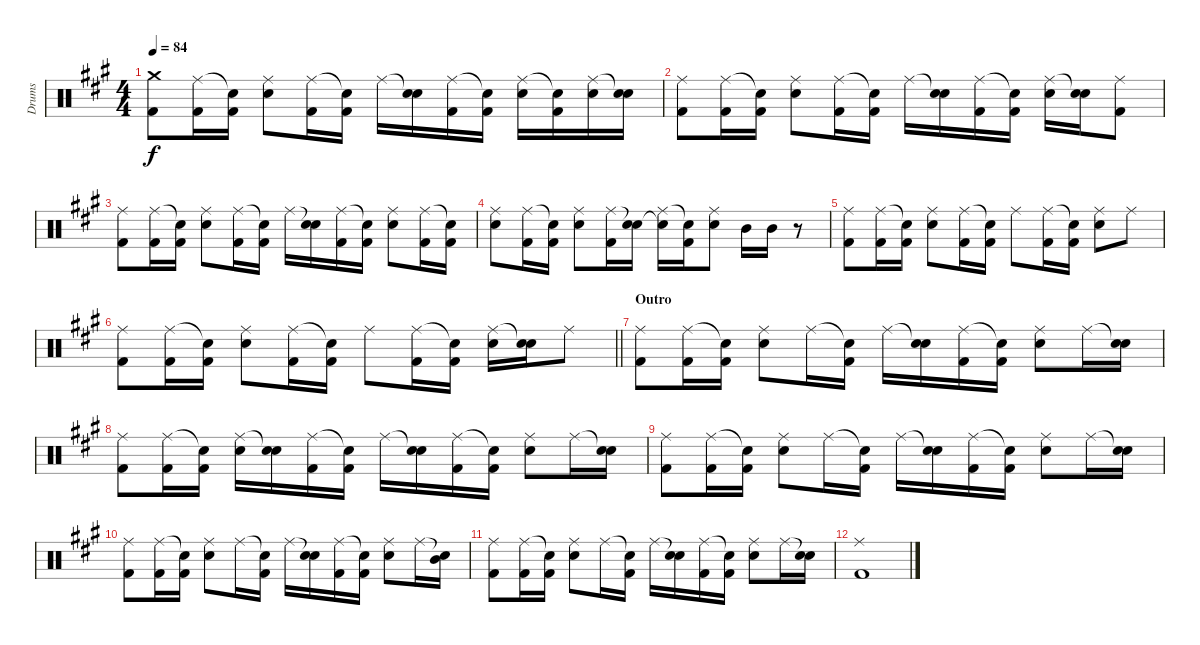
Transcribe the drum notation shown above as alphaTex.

\track ("Drums" "Drums") {instrument percussion}
\staff {score}
\articulation defaults
\ts (4 4)
\tempo 84
\clef neutral
\ks a
("Crash medium (hit)" "Kick (hit) 2").8{dy f} ("Ride (middle)" "Kick (hit) 2").16 ("Snare (hit)"{t} "Kick (hit) 2").16 ("Ride (middle)" "Electric Snare (hit)").8 ("Ride (middle)" "Kick (hit) 2").16 ("Snare (hit)"{t} "Kick (hit) 2").16 "Ride (middle)".16 ("Snare (hit)"{t} "Electric Snare (hit)").16 ("Ride (middle)" "Kick (hit) 2").16 ("Snare (hit)"{t} "Kick (hit) 2").16 ("Ride (middle)" "Electric Snare (hit)").16 ("Snare (hit)"{t} "Kick (hit) 2").16 ("Ride (middle)" "Electric Snare (hit)").16 ("Snare (hit)"{t} "Electric Snare (hit)").16 |
("Ride (middle)" "Kick (hit) 2").8 ("Ride (middle)" "Kick (hit) 2").16 ("Snare (hit)"{t} "Kick (hit) 2").16 ("Ride (middle)" "Electric Snare (hit)").8 ("Ride (middle)" "Kick (hit) 2").16 ("Snare (hit)"{t} "Kick (hit) 2").16 "Ride (middle)".16 ("Snare (hit)"{t} "Electric Snare (hit)").16 ("Ride (middle)" "Kick (hit) 2").16 ("Snare (hit)"{t} "Kick (hit) 2").16 ("Ride (middle)" "Electric Snare (hit)").16 ("Snare (hit)"{t} "Electric Snare (hit)").16 ("Ride (middle)" "Kick (hit) 2").8 |
("Ride (middle)" "Kick (hit) 2").8 ("Ride (middle)" "Kick (hit) 2").16 ("Snare (hit)"{t} "Kick (hit) 2").16 ("Ride (middle)" "Electric Snare (hit)").8 ("Ride (middle)" "Kick (hit) 2").16 ("Snare (hit)"{t} "Kick (hit) 2").16 "Ride (middle)".16 ("Snare (hit)"{t} "Electric Snare (hit)").16 ("Ride (middle)" "Kick (hit) 2").16 ("Snare (hit)"{t} "Kick (hit) 2").16 ("Ride (middle)" "Electric Snare (hit)").8 ("Ride (middle)" "Kick (hit) 2").16 ("Snare (hit)"{t} "Kick (hit) 2").16 |
("Ride (middle)" "Electric Snare (hit)").8 ("Ride (middle)" "Kick (hit) 2").16 ("Snare (hit)"{t} "Kick (hit) 2").16 ("Ride (middle)" "Electric Snare (hit)").8 ("Ride (middle)" "Kick (hit) 2").16 ("Snare (hit)"{t} "Electric Snare (hit)").16 ("Ride (middle)" "Snare (hit)"{t}).16 ("Snare (hit)"{t} "Kick (hit) 2").16 ("Ride (middle)" "Electric Snare (hit)").8 "Mid Tom (hit)".16 "Mid Tom (hit)".16 r.8 |
("Ride (middle)" "Kick (hit) 2").8 ("Ride (middle)" "Kick (hit) 2").16 ("Snare (hit)"{t} "Kick (hit) 2").16 ("Ride (middle)" "Electric Snare (hit)").8 ("Ride (middle)" "Kick (hit) 2").16 ("Snare (hit)"{t} "Kick (hit) 2").16 "Ride (middle)".8 ("Ride (middle)" "Kick (hit) 2").16 ("Snare (hit)"{t} "Kick (hit) 2").16 ("Ride (middle)" "Electric Snare (hit)").8 "Ride (middle)".8 |
\barLineRight lightlight
("Ride (middle)" "Kick (hit) 2").8 ("Ride (middle)" "Kick (hit) 2").16 ("Snare (hit)"{t} "Kick (hit) 2").16 ("Ride (middle)" "Electric Snare (hit)").8 ("Ride (middle)" "Kick (hit) 2").16 ("Snare (hit)"{t} "Kick (hit) 2").16 "Ride (middle)".8 ("Ride (middle)" "Kick (hit) 2").16 ("Snare (hit)"{t} "Kick (hit) 2").16 ("Ride (middle)" "Electric Snare (hit)").16 ("Snare (hit)"{t} "Electric Snare (hit)").16 "Ride (middle)".8 |
\section ("" "Outro")
("Ride (middle)" "Kick (hit) 2").8 ("Ride (middle)" "Kick (hit) 2").16 ("Snare (hit)"{t} "Kick (hit) 2").16 ("Ride (middle)" "Electric Snare (hit)").8 "Ride (middle)".16 ("Snare (hit)"{t} "Kick (hit) 2").16 "Ride (middle)".16 ("Snare (hit)"{t} "Electric Snare (hit)").16 ("Ride (middle)" "Kick (hit) 2").16 ("Snare (hit)"{t} "Kick (hit) 2").16 ("Ride (middle)" "Electric Snare (hit)").8 "Ride (middle)".16 ("Snare (hit)"{t} "Electric Snare (hit)").16 |
("Ride (middle)" "Kick (hit) 2").8 ("Ride (middle)" "Kick (hit) 2").16 ("Snare (hit)"{t} "Kick (hit) 2").16 ("Ride (middle)" "Electric Snare (hit)").16 ("Snare (hit)"{t} "Electric Snare (hit)").16 ("Ride (middle)" "Kick (hit) 2").16 ("Snare (hit)"{t} "Kick (hit) 2").16 "Ride (middle)".16 ("Snare (hit)"{t} "Electric Snare (hit)").16 ("Ride (middle)" "Kick (hit) 2").16 ("Snare (hit)"{t} "Kick (hit) 2").16 ("Ride (middle)" "Electric Snare (hit)").8 "Ride (middle)".16 ("Snare (hit)"{t} "Electric Snare (hit)").16 |
("Ride (middle)" "Kick (hit) 2").8 ("Ride (middle)" "Kick (hit) 2").16 ("Snare (hit)"{t} "Kick (hit) 2").16 ("Ride (middle)" "Electric Snare (hit)").8 "Ride (middle)".16 ("Snare (hit)"{t} "Kick (hit) 2").16 "Ride (middle)".16 ("Snare (hit)"{t} "Electric Snare (hit)").16 ("Ride (middle)" "Kick (hit) 2").16 ("Snare (hit)"{t} "Kick (hit) 2").16 ("Ride (middle)" "Electric Snare (hit)").8 "Ride (middle)".16 ("Snare (hit)"{t} "Electric Snare (hit)").16 |
("Ride (middle)" "Kick (hit) 2").8 ("Ride (middle)" "Kick (hit) 2").16 ("Snare (hit)"{t} "Kick (hit) 2").16 ("Ride (middle)" "Electric Snare (hit)").8 "Ride (middle)".16 ("Snare (hit)"{t} "Kick (hit) 2").16 "Ride (middle)".16 ("Snare (hit)"{t} "Electric Snare (hit)").16 ("Ride (middle)" "Kick (hit) 2").16 ("Snare (hit)"{t} "Kick (hit) 2").16 ("Ride (middle)" "Electric Snare (hit)").8 "Ride (middle)".16 ("Snare (hit)"{t} "Mid Tom (hit)").16 |
("Ride (middle)" "Kick (hit) 2").8 ("Ride (middle)" "Kick (hit) 2").16 ("Snare (hit)"{t} "Kick (hit) 2").16 ("Ride (middle)" "Electric Snare (hit)").8 "Ride (middle)".16 ("Snare (hit)"{t} "Kick (hit) 2").16 "Ride (middle)".16 ("Snare (hit)"{t} "Electric Snare (hit)").16 ("Ride (middle)" "Kick (hit) 2").16 ("Snare (hit)"{t} "Kick (hit) 2").16 ("Ride (middle)" "Electric Snare (hit)").8 "Ride (middle)".16 ("Snare (hit)"{t} "Electric Snare (hit)").16 |
("Ride (middle)" "Kick (hit) 2").1
